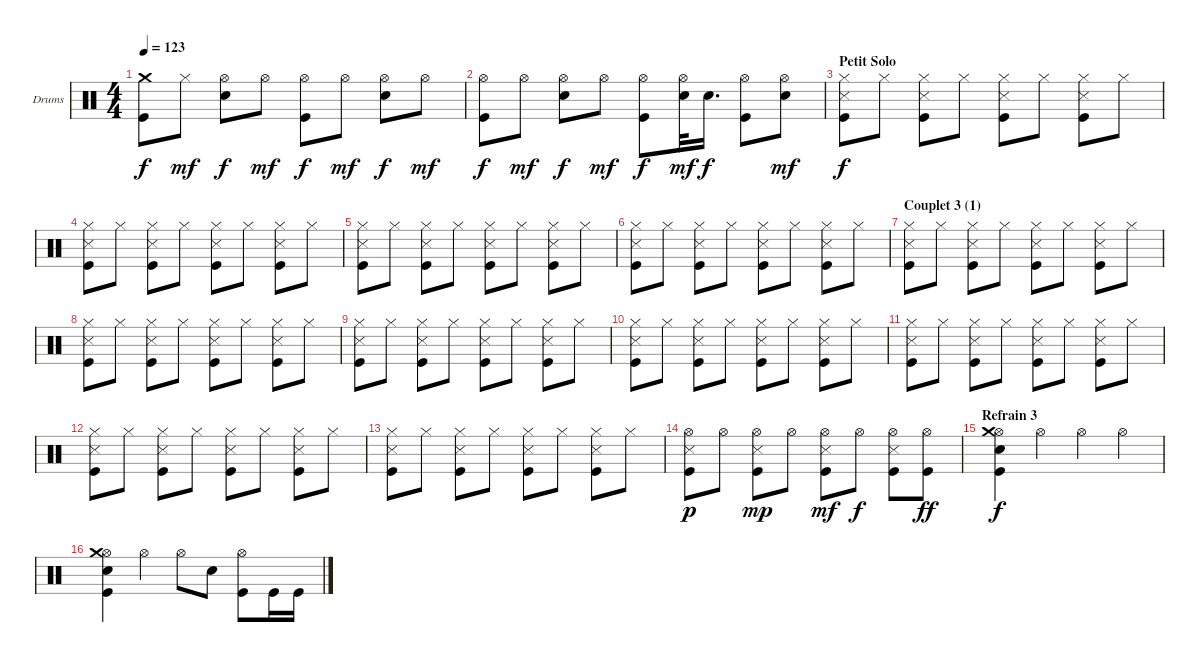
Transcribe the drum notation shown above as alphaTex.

\bracketExtendMode groupsimilarinstruments
\firstSystemTrackNameOrientation horizontal
\otherSystemsTrackNameOrientation horizontal
\track ("Drumkit" "Drums") {instrument percussion}
\staff {score}
\articulation defaults
\ts (4 4)
\tempo 123
\clef neutral
\ks c
("Crash medium (hit)" "Kick (hit)").8{dy f} "Hi-Hat (closed)".8{dy mf} ("Hi-Hat (open)" "Snare (hit) 2").8{dy f} "Hi-Hat (open)".8{dy mf} ("Hi-Hat (open)" "Kick (hit)").8{dy f} "Hi-Hat (open)".8{dy mf} ("Hi-Hat (open)" "Snare (hit) 2").8{dy f} "Hi-Hat (open)".8{dy mf} |
("Hi-Hat (open)" "Kick (hit)").8{dy f} "Hi-Hat (open)".8{dy mf} ("Hi-Hat (open)" "Snare (hit) 2").8{dy f} "Hi-Hat (open)".8{dy mf} ("Hi-Hat (open)" "Kick (hit)").8{dy f} ("Hi-Hat (open)" "Snare (hit) 2").32{dy mf} "Snare (hit) 2".16{d dy f} ("Hi-Hat (open)" "Kick (hit)").8 ("Hi-Hat (open)" "Snare (hit) 2").8{dy mf} |
\section ("" "Petit Solo")
("Hi-Hat (closed)" "Snare (side stick) 3" "Kick (hit)").8{dy f} "Hi-Hat (closed)".8 ("Hi-Hat (closed)" "Snare (side stick) 3" "Kick (hit)").8 "Hi-Hat (closed)".8 ("Hi-Hat (closed)" "Snare (side stick) 3" "Kick (hit)").8 "Hi-Hat (closed)".8 ("Hi-Hat (closed)" "Snare (side stick) 3" "Kick (hit)").8 "Hi-Hat (closed)".8 |
("Hi-Hat (closed)" "Snare (side stick) 3" "Kick (hit)").8 "Hi-Hat (closed)".8 ("Hi-Hat (closed)" "Snare (side stick) 3" "Kick (hit)").8 "Hi-Hat (closed)".8 ("Hi-Hat (closed)" "Snare (side stick) 3" "Kick (hit)").8 "Hi-Hat (closed)".8 ("Hi-Hat (closed)" "Snare (side stick) 3" "Kick (hit)").8 "Hi-Hat (closed)".8 |
("Hi-Hat (closed)" "Snare (side stick) 3" "Kick (hit)").8 "Hi-Hat (closed)".8 ("Hi-Hat (closed)" "Snare (side stick) 3" "Kick (hit)").8 "Hi-Hat (closed)".8 ("Hi-Hat (closed)" "Snare (side stick) 3" "Kick (hit)").8 "Hi-Hat (closed)".8 ("Hi-Hat (closed)" "Snare (side stick) 3" "Kick (hit)").8 "Hi-Hat (closed)".8 |
("Hi-Hat (closed)" "Snare (side stick) 3" "Kick (hit)").8 "Hi-Hat (closed)".8 ("Hi-Hat (closed)" "Snare (side stick) 3" "Kick (hit)").8 "Hi-Hat (closed)".8 ("Hi-Hat (closed)" "Snare (side stick) 3" "Kick (hit)").8 "Hi-Hat (closed)".8 ("Hi-Hat (closed)" "Snare (side stick) 3" "Kick (hit)").8 "Hi-Hat (closed)".8 |
\section ("" "Couplet 3 (1)")
("Hi-Hat (closed)" "Snare (side stick) 3" "Kick (hit)").8 "Hi-Hat (closed)".8 ("Hi-Hat (closed)" "Snare (side stick) 3" "Kick (hit)").8 "Hi-Hat (closed)".8 ("Hi-Hat (closed)" "Snare (side stick) 3" "Kick (hit)").8 "Hi-Hat (closed)".8 ("Hi-Hat (closed)" "Snare (side stick) 3" "Kick (hit)").8 "Hi-Hat (closed)".8 |
("Hi-Hat (closed)" "Snare (side stick) 3" "Kick (hit)").8 "Hi-Hat (closed)".8 ("Hi-Hat (closed)" "Snare (side stick) 3" "Kick (hit)").8 "Hi-Hat (closed)".8 ("Hi-Hat (closed)" "Snare (side stick) 3" "Kick (hit)").8 "Hi-Hat (closed)".8 ("Hi-Hat (closed)" "Snare (side stick) 3" "Kick (hit)").8 "Hi-Hat (closed)".8 |
("Hi-Hat (closed)" "Snare (side stick) 3" "Kick (hit)").8 "Hi-Hat (closed)".8 ("Hi-Hat (closed)" "Snare (side stick) 3" "Kick (hit)").8 "Hi-Hat (closed)".8 ("Hi-Hat (closed)" "Snare (side stick) 3" "Kick (hit)").8 "Hi-Hat (closed)".8 ("Hi-Hat (closed)" "Snare (side stick) 3" "Kick (hit)").8 "Hi-Hat (closed)".8 |
("Hi-Hat (closed)" "Snare (side stick) 3" "Kick (hit)").8 "Hi-Hat (closed)".8 ("Hi-Hat (closed)" "Snare (side stick) 3" "Kick (hit)").8 "Hi-Hat (closed)".8 ("Hi-Hat (closed)" "Snare (side stick) 3" "Kick (hit)").8 "Hi-Hat (closed)".8 ("Hi-Hat (closed)" "Snare (side stick) 3" "Kick (hit)").8 "Hi-Hat (closed)".8 |
("Hi-Hat (closed)" "Snare (side stick) 3" "Kick (hit)").8 "Hi-Hat (closed)".8 ("Hi-Hat (closed)" "Snare (side stick) 3" "Kick (hit)").8 "Hi-Hat (closed)".8 ("Hi-Hat (closed)" "Snare (side stick) 3" "Kick (hit)").8 "Hi-Hat (closed)".8 ("Hi-Hat (closed)" "Snare (side stick) 3" "Kick (hit)").8 "Hi-Hat (closed)".8 |
("Hi-Hat (closed)" "Snare (side stick) 3" "Kick (hit)").8 "Hi-Hat (closed)".8 ("Hi-Hat (closed)" "Snare (side stick) 3" "Kick (hit)").8 "Hi-Hat (closed)".8 ("Hi-Hat (closed)" "Snare (side stick) 3" "Kick (hit)").8 "Hi-Hat (closed)".8 ("Hi-Hat (closed)" "Snare (side stick) 3" "Kick (hit)").8 "Hi-Hat (closed)".8 |
("Hi-Hat (closed)" "Snare (side stick) 3" "Kick (hit)").8 "Hi-Hat (closed)".8 ("Hi-Hat (closed)" "Snare (side stick) 3" "Kick (hit)").8 "Hi-Hat (closed)".8 ("Hi-Hat (closed)" "Snare (side stick) 3" "Kick (hit)").8 "Hi-Hat (closed)".8 ("Hi-Hat (closed)" "Snare (side stick) 3" "Kick (hit)").8 "Hi-Hat (closed)".8 |
("Hi-Hat (open)" "Snare (side stick) 3" "Kick (hit)").8{dy p} "Hi-Hat (open)".8 ("Hi-Hat (open)" "Snare (side stick) 3" "Kick (hit)").8{dy mp} "Hi-Hat (open)".8 ("Hi-Hat (open)" "Snare (side stick) 3" "Kick (hit)").8{dy mf} "Hi-Hat (open)".8{dy f} ("Hi-Hat (open)" "Snare (side stick) 3" "Kick (hit)").8 ("Hi-Hat (open)" "Kick (hit)").8{dy ff} |
\section ("" "Refrain 3")
("Hi-Hat (open)" "Crash medium (hit)" "Snare (hit) 2" "Kick (hit)").4{dy f} "Hi-Hat (open)".4 "Hi-Hat (open)".4 "Hi-Hat (open)".4 |
("Hi-Hat (open)" "Crash medium (hit)" "Snare (hit) 2" "Kick (hit)").4 "Hi-Hat (open)".4 "Hi-Hat (open)".8 "Snare (hit) 2".8 ("Hi-Hat (open)" "Kick (hit)").8 "Kick (hit)".16 "Kick (hit)".16
